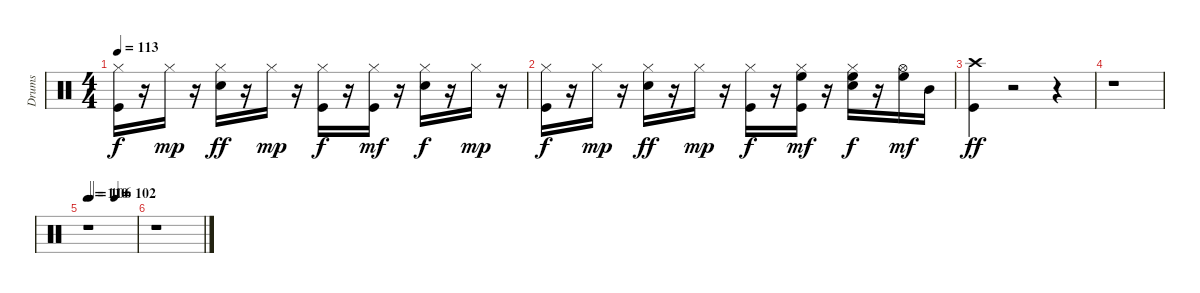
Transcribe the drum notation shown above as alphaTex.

\track ("Drums" "Drums") {instrument percussion}
\staff {score}
\articulation defaults
\ts (4 4)
\tempo 113
\clef neutral
\ks c
("Hi-Hat (closed)" "Kick (hit)").16{dy f} r.16 "Hi-Hat (closed)".16{dy mp} r.16 ("Electric Snare (hit)" "Hi-Hat (closed)").16{dy ff} r.16 "Hi-Hat (closed)".16{dy mp} r.16 ("Hi-Hat (closed)" "Kick (hit)").16{dy f} r.16 ("Hi-Hat (closed)" "Kick (hit)").16{dy mf} r.16 ("Electric Snare (hit)" "Hi-Hat (closed)").16{dy f} r.16 "Hi-Hat (closed)".16{dy mp} r.16 |
("Hi-Hat (closed)" "Kick (hit)").16{dy f} r.16 "Hi-Hat (closed)".16{dy mp} r.16 ("Electric Snare (hit)" "Hi-Hat (closed)").16{dy ff} r.16 "Hi-Hat (closed)".16{dy mp} r.16 ("Hi-Hat (closed)" "Kick (hit)").16{dy f} r.16 ("Hi-Hat (closed)" "High Floor Tom (hit)" "Kick (hit)").16{dy mf} r.16 ("Electric Snare (hit)" "Hi-Hat (closed)" "High Floor Tom (hit)").16{dy f} r.16 ("Hi-Hat (open)" "High Floor Tom (hit)").16{dy mf} "Mid Tom (hit)".16 |
("Crash high (hit)" "Kick (hit)").4{dy ff} r.2 r.4 |
r.1 |
\tempo 110
\tempo (106 0.0625)
\tempo (102 0.5625)
r.1 |
r.1
